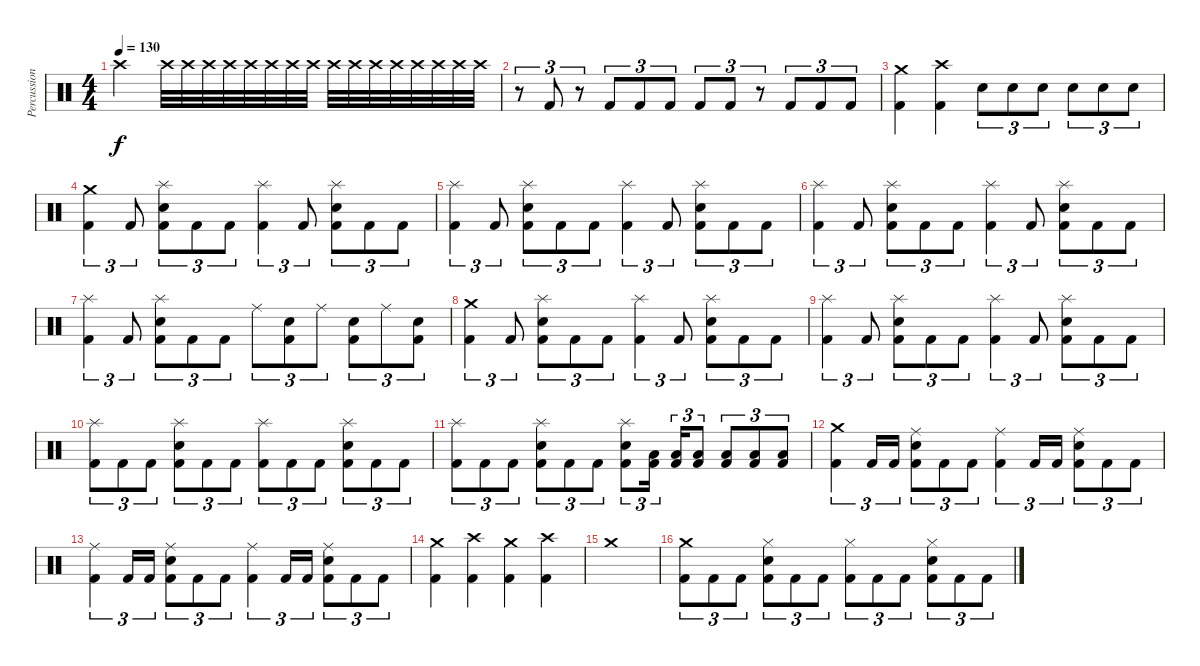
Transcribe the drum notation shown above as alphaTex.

\track ("Percussions" "Percussion") {instrument percussion}
\staff {score}
\articulation defaults
\ts (4 4)
\tempo 130
\clef neutral
\ks c "Crash high (hit)".2{dy f volume 0} "Crash high (hit)".32{volume 13} "Crash high (hit)".32 "Crash high (hit)".32 "Crash high (hit)".32 "Crash high (hit)".32 "Crash high (hit)".32 "Crash high (hit)".32 "Crash high (hit)".32 "Crash high (hit)".32 "Crash high (hit)".32 "Crash high (hit)".32 "Crash high (hit)".32 "Crash high (hit)".32 "Crash high (hit)".32 "Crash high (hit)".32 "Crash high (hit)".32
|
r.8{tu (3 2)} "Kick (hit) 2".8{tu (3 2)} r.8{tu (3 2)} "Kick (hit) 2".8{tu (3 2)} "Kick (hit) 2".8{tu (3 2)} "Kick (hit) 2".8{tu (3 2)} "Kick (hit) 2".8{tu (3 2)} "Kick (hit) 2".8{tu (3 2)} r.8{tu (3 2)} "Kick (hit) 2".8{tu (3 2)} "Kick (hit) 2".8{tu (3 2)} "Kick (hit) 2".8{tu (3 2)} |
("Crash medium (hit)" "Kick (hit) 2").4 ("Crash high (hit)" "Kick (hit) 2").4 "Electric Snare (hit)".8{tu (3 2)} "Electric Snare (hit)".8{tu (3 2)} "Electric Snare (hit)".8{tu (3 2)} "Electric Snare (hit)".8{tu (3 2)} "Electric Snare (hit)".8{tu (3 2)} "Electric Snare (hit)".8{tu (3 2)} |
("Crash medium (hit)" "Kick (hit) 2").4{tu (3 2)} "Kick (hit) 2".8{tu (3 2)} ("Splash (hit)" "Electric Snare (hit)" "Kick (hit) 2").8{tu (3 2)} "Kick (hit) 2".8{tu (3 2)} "Kick (hit) 2".8{tu (3 2)} ("Splash (hit)" "Kick (hit) 2").4{tu (3 2)} "Kick (hit) 2".8{tu (3 2)} ("Splash (hit)" "Electric Snare (hit)" "Kick (hit) 2").8{tu (3 2)} "Kick (hit) 2".8{tu (3 2)} "Kick (hit) 2".8{tu (3 2)} |
("Splash (hit)" "Kick (hit) 2").4{tu (3 2)} "Kick (hit) 2".8{tu (3 2)} ("Splash (hit)" "Electric Snare (hit)" "Kick (hit) 2").8{tu (3 2)} "Kick (hit) 2".8{tu (3 2)} "Kick (hit) 2".8{tu (3 2)} ("Splash (hit)" "Kick (hit) 2").4{tu (3 2)} "Kick (hit) 2".8{tu (3 2)} ("Splash (hit)" "Electric Snare (hit)" "Kick (hit) 2").8{tu (3 2)} "Kick (hit) 2".8{tu (3 2)} "Kick (hit) 2".8{tu (3 2)} |
("Splash (hit)" "Kick (hit) 2").4{tu (3 2)} "Kick (hit) 2".8{tu (3 2)} ("Splash (hit)" "Electric Snare (hit)" "Kick (hit) 2").8{tu (3 2)} "Kick (hit) 2".8{tu (3 2)} "Kick (hit) 2".8{tu (3 2)} ("Splash (hit)" "Kick (hit) 2").4{tu (3 2)} "Kick (hit) 2".8{tu (3 2)} ("Splash (hit)" "Electric Snare (hit)" "Kick (hit) 2").8{tu (3 2)} "Kick (hit) 2".8{tu (3 2)} "Kick (hit) 2".8{tu (3 2)} |
("Splash (hit)" "Kick (hit) 2").4{tu (3 2)} "Kick (hit) 2".8{tu (3 2)} ("Splash (hit)" "Electric Snare (hit)" "Kick (hit) 2").8{tu (3 2)} "Kick (hit) 2".8{tu (3 2)} "Kick (hit) 2".8{tu (3 2)} "Ride (middle)".8{tu (3 2)} ("Electric Snare (hit)" "Kick (hit) 2").8{tu (3 2)} "Ride (middle)".8{tu (3 2)} ("Electric Snare (hit)" "Kick (hit) 2").8{tu (3 2)} "Ride (middle)".8{tu (3 2)} ("Electric Snare (hit)" "Kick (hit) 2").8{tu (3 2)} |
("Crash medium (hit)" "Kick (hit) 2").4{tu (3 2)} "Kick (hit) 2".8{tu (3 2)} ("Splash (hit)" "Electric Snare (hit)" "Kick (hit) 2").8{tu (3 2)} "Kick (hit) 2".8{tu (3 2)} "Kick (hit) 2".8{tu (3 2)} ("Splash (hit)" "Kick (hit) 2").4{tu (3 2)} "Kick (hit) 2".8{tu (3 2)} ("Splash (hit)" "Electric Snare (hit)" "Kick (hit) 2").8{tu (3 2)} "Kick (hit) 2".8{tu (3 2)} "Kick (hit) 2".8{tu (3 2)} |
("Splash (hit)" "Kick (hit) 2").4{tu (3 2)} "Kick (hit) 2".8{tu (3 2)} ("Splash (hit)" "Electric Snare (hit)" "Kick (hit) 2").8{tu (3 2)} "Kick (hit) 2".8{tu (3 2)} "Kick (hit) 2".8{tu (3 2)} ("Splash (hit)" "Kick (hit) 2").4{tu (3 2)} "Kick (hit) 2".8{tu (3 2)} ("Splash (hit)" "Electric Snare (hit)" "Kick (hit) 2").8{tu (3 2)} "Kick (hit) 2".8{tu (3 2)} "Kick (hit) 2".8{tu (3 2)} |
("Splash (hit)" "Kick (hit) 2").8{tu (3 2)} "Kick (hit) 2".8{tu (3 2)} "Kick (hit) 2".8{tu (3 2)} ("Splash (hit)" "Electric Snare (hit)" "Kick (hit) 2").8{tu (3 2)} "Kick (hit) 2".8{tu (3 2)} "Kick (hit) 2".8{tu (3 2)} ("Splash (hit)" "Kick (hit) 2").8{tu (3 2)} "Kick (hit) 2".8{tu (3 2)} "Kick (hit) 2".8{tu (3 2)} ("Splash (hit)" "Electric Snare (hit)" "Kick (hit) 2").8{tu (3 2)} "Kick (hit) 2".8{tu (3 2)} "Kick (hit) 2".8{tu (3 2)} |
("Splash (hit)" "Kick (hit) 2").8{tu (3 2)} "Kick (hit) 2".8{tu (3 2)} "Kick (hit) 2".8{tu (3 2)} ("Splash (hit)" "Electric Snare (hit)" "Kick (hit) 2").8{tu (3 2)} "Kick (hit) 2".8{tu (3 2)} "Kick (hit) 2".8{tu (3 2)} ("Splash (hit)" "Electric Snare (hit)" "Kick (hit) 2").8{tu (3 2)} ("Low Tom (hit)" "Kick (hit) 2").16{tu (3 2) beam splitsecondary} ("Low Tom (hit)" "Kick (hit) 2").16{tu (3 2)} ("Low Tom (hit)" "Kick (hit) 2").8{tu (3 2)} ("Low Tom (hit)" "Kick (hit) 2").8{tu (3 2)} ("Low Tom (hit)" "Kick (hit) 2").8{tu (3 2)} ("Low Tom (hit)" "Kick (hit) 2").8{tu (3 2)} |
("Crash medium (hit)" "Kick (hit) 2").4{tu (3 2)} "Kick (hit) 2".16{tu (3 2)} "Kick (hit) 2".16{tu (3 2)} ("Ride (middle)" "Electric Snare (hit)" "Kick (hit) 2").8{tu (3 2)} "Kick (hit) 2".8{tu (3 2)} "Kick (hit) 2".8{tu (3 2)} ("Ride (middle)" "Kick (hit) 2").4{tu (3 2)} "Kick (hit) 2".16{tu (3 2)} "Kick (hit) 2".16{tu (3 2)} ("Ride (middle)" "Electric Snare (hit)" "Kick (hit) 2").8{tu (3 2)} "Kick (hit) 2".8{tu (3 2)} "Kick (hit) 2".8{tu (3 2)} |
("Ride (middle)" "Kick (hit) 2").4{tu (3 2)} "Kick (hit) 2".16{tu (3 2)} "Kick (hit) 2".16{tu (3 2)} ("Ride (middle)" "Electric Snare (hit)" "Kick (hit) 2").8{tu (3 2)} "Kick (hit) 2".8{tu (3 2)} "Kick (hit) 2".8{tu (3 2)} ("Ride (middle)" "Kick (hit) 2").4{tu (3 2)} "Kick (hit) 2".16{tu (3 2)} "Kick (hit) 2".16{tu (3 2)} ("Ride (middle)" "Electric Snare (hit)" "Kick (hit) 2").8{tu (3 2)} "Kick (hit) 2".8{tu (3 2)} "Kick (hit) 2".8{tu (3 2)} |
("Crash medium (hit)" "Kick (hit) 2").4 ("Crash high (hit)" "Kick (hit) 2").4 ("Crash medium (hit)" "Kick (hit) 2").4 ("Crash high (hit)" "Kick (hit) 2").4 |
"Crash medium (hit)".1 |
("Crash medium (hit)" "Kick (hit) 2").8{tu (3 2)} "Kick (hit) 2".8{tu (3 2)} "Kick (hit) 2".8{tu (3 2)} ("Hi-Hat (closed)" "Electric Snare (hit)" "Kick (hit) 2").8{tu (3 2)} "Kick (hit) 2".8{tu (3 2)} "Kick (hit) 2".8{tu (3 2)} ("Hi-Hat (closed)" "Kick (hit) 2").8{tu (3 2)} "Kick (hit) 2".8{tu (3 2)} "Kick (hit) 2".8{tu (3 2)} ("Hi-Hat (closed)" "Electric Snare (hit)" "Kick (hit) 2").8{tu (3 2)} "Kick (hit) 2".8{tu (3 2)} "Kick (hit) 2".8{tu (3 2)}
